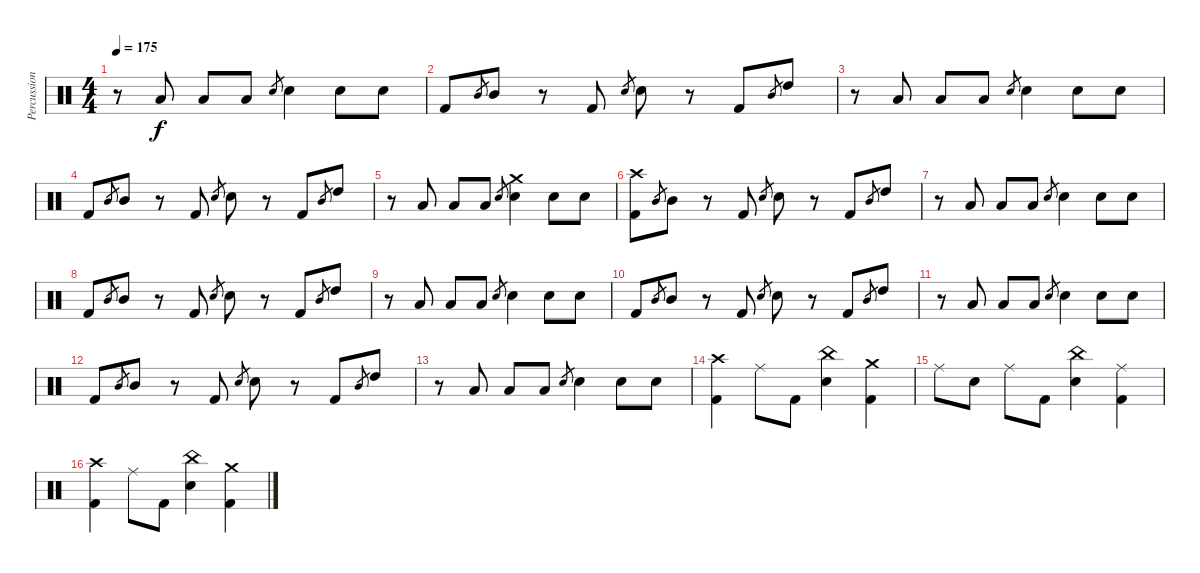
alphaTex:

\track ("Percussion" "Percussion") {instrument percussion}
\staff {score}
\articulation defaults
\ts (4 4)
\tempo 175
\clef neutral
\ks c
r.8{dy f} "Low Tom (hit)".8 "Low Tom (hit)".8 "Low Tom (hit)".8 "Electric Snare (hit)".8{gr} "Electric Snare (hit)".4 "Electric Snare (hit)".8 "Electric Snare (hit)".8 |
"Kick (hit) 2".8 "Mid Tom (hit)".8{gr} "Mid Tom (hit)".8 r.8 "Kick (hit) 2".8 "Electric Snare (hit)".8{gr} "Electric Snare (hit)".8 r.8 "Kick (hit) 2".8 "Mid Tom (hit)".8{gr} "High Tom (hit)".8 |
r.8 "Low Tom (hit)".8 "Low Tom (hit)".8 "Low Tom (hit)".8 "Electric Snare (hit)".8{gr} "Electric Snare (hit)".4 "Electric Snare (hit)".8 "Electric Snare (hit)".8 |
"Kick (hit) 2".8 "Mid Tom (hit)".8{gr} "Mid Tom (hit)".8 r.8 "Kick (hit) 2".8 "Electric Snare (hit)".8{gr} "Electric Snare (hit)".8 r.8 "Kick (hit) 2".8 "Mid Tom (hit)".8{gr} "High Tom (hit)".8 |
r.8 "Low Tom (hit)".8 "Low Tom (hit)".8 "Low Tom (hit)".8 "Electric Snare (hit)".8{gr} ("Crash medium (hit)" "Electric Snare (hit)").4 "Electric Snare (hit)".8 "Electric Snare (hit)".8 |
("Crash high (hit)" "Kick (hit) 2").8 "Mid Tom (hit)".8{gr} "Mid Tom (hit)".8 r.8 "Kick (hit) 2".8 "Electric Snare (hit)".8{gr} "Electric Snare (hit)".8 r.8 "Kick (hit) 2".8 "Mid Tom (hit)".8{gr} "High Tom (hit)".8 |
r.8 "Low Tom (hit)".8 "Low Tom (hit)".8 "Low Tom (hit)".8 "Electric Snare (hit)".8{gr} "Electric Snare (hit)".4 "Electric Snare (hit)".8 "Electric Snare (hit)".8 |
"Kick (hit) 2".8 "Mid Tom (hit)".8{gr} "Mid Tom (hit)".8 r.8 "Kick (hit) 2".8 "Electric Snare (hit)".8{gr} "Electric Snare (hit)".8 r.8 "Kick (hit) 2".8 "Mid Tom (hit)".8{gr} "High Tom (hit)".8 |
r.8 "Low Tom (hit)".8 "Low Tom (hit)".8 "Low Tom (hit)".8 "Electric Snare (hit)".8{gr} "Electric Snare (hit)".4 "Electric Snare (hit)".8 "Electric Snare (hit)".8 |
"Kick (hit) 2".8 "Mid Tom (hit)".8{gr} "Mid Tom (hit)".8 r.8 "Kick (hit) 2".8 "Electric Snare (hit)".8{gr} "Electric Snare (hit)".8 r.8 "Kick (hit) 2".8 "Mid Tom (hit)".8{gr} "High Tom (hit)".8 |
r.8 "Low Tom (hit)".8 "Low Tom (hit)".8 "Low Tom (hit)".8 "Electric Snare (hit)".8{gr} "Electric Snare (hit)".4 "Electric Snare (hit)".8 "Electric Snare (hit)".8 |
"Kick (hit) 2".8 "Mid Tom (hit)".8{gr} "Mid Tom (hit)".8 r.8 "Kick (hit) 2".8 "Electric Snare (hit)".8{gr} "Electric Snare (hit)".8 r.8 "Kick (hit) 2".8 "Mid Tom (hit)".8{gr} "High Tom (hit)".8 |
r.8 "Low Tom (hit)".8 "Low Tom (hit)".8 "Low Tom (hit)".8 "Electric Snare (hit)".8{gr} "Electric Snare (hit)".4 "Electric Snare (hit)".8 "Electric Snare (hit)".8 |
("Crash high (hit)" "Kick (hit) 2").4 "Ride (middle)".8 "Kick (hit) 2".8 ("China (hit)" "Electric Snare (hit)").4 ("Crash medium (hit)" "Kick (hit) 2").4 |
"Ride (middle)".8 "Electric Snare (hit)".8 "Ride (middle)".8 "Kick (hit) 2".8 ("China (hit)" "Electric Snare (hit)").4 ("Ride (middle)" "Kick (hit) 2").4 |
("Crash high (hit)" "Kick (hit) 2").4 "Ride (middle)".8 "Kick (hit) 2".8 ("China (hit)" "Electric Snare (hit)").4 ("Crash medium (hit)" "Kick (hit) 2").4
